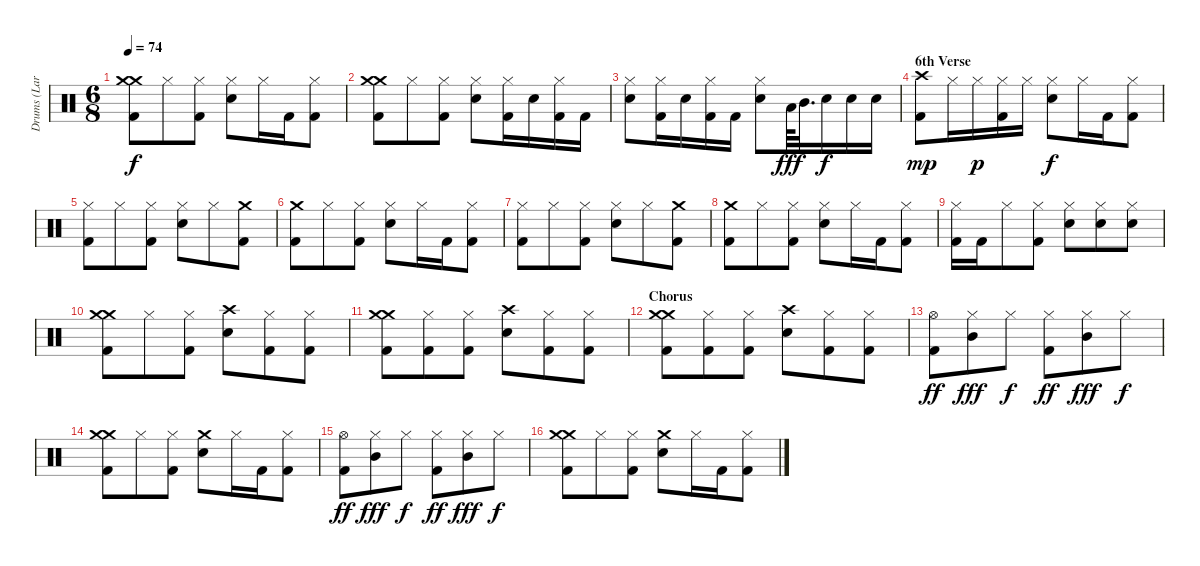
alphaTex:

\track ("Drums (Lars Ulrich)" "Drums (Lar") {instrument percussion}
\staff {score}
\articulation defaults
\ts (6 8)
\tempo 74
\clef neutral
\ks c
("Crash medium (hit)" "Crash medium (hit)" "Kick (hit) 2").8{dy f} "Hi-Hat (closed)".8 ("Hi-Hat (closed)" "Kick (hit) 2").8 ("Hi-Hat (closed)" "Snare (hit) 2").8 "Hi-Hat (closed)".16 "Kick (hit) 2".16 ("Hi-Hat (closed)" "Kick (hit) 2").8 |
("Crash medium (hit)" "Crash medium (hit)" "Kick (hit) 2").8 "Hi-Hat (closed)".8 ("Hi-Hat (closed)" "Kick (hit) 2").8 ("Hi-Hat (closed)" "Snare (hit) 2").8 ("Hi-Hat (closed)" "Kick (hit) 2").16 "Snare (hit) 2".16 ("Hi-Hat (closed)" "Kick (hit) 2").16 "Kick (hit) 2".16 |
("Hi-Hat (closed)" "Snare (hit) 2").8 ("Hi-Hat (closed)" "Kick (hit) 2").16 "Snare (hit) 2".16 ("Hi-Hat (closed)" "Kick (hit) 2").16 "Kick (hit) 2".16 ("Hi-Hat (closed)" "Snare (hit) 2").8 "Low Tom (hit)".64{dy fff} "Mid Tom (hit)".32{d} "Snare (hit) 2".16{dy f} "Snare (hit) 2".16 "Snare (hit) 2".16 |
\section ("" "6th Verse")
("Crash high (hit)" "Kick (hit) 2").8{dy mp} "Hi-Hat (closed)".16 "Hi-Hat (closed)".16{dy p} ("Hi-Hat (closed)" "Kick (hit) 2").16 "Hi-Hat (closed)".16 ("Hi-Hat (closed)" "Snare (hit) 2").8{dy f} "Hi-Hat (closed)".16 "Kick (hit) 2".16 ("Hi-Hat (closed)" "Kick (hit) 2").8 |
("Hi-Hat (closed)" "Kick (hit) 2").8 "Hi-Hat (closed)".8 ("Hi-Hat (closed)" "Kick (hit) 2").8 ("Hi-Hat (closed)" "Snare (hit) 2").8 "Hi-Hat (closed)".8 ("Crash medium (hit)" "Kick (hit) 2").8 |
("Crash medium (hit)" "Kick (hit) 2").8 "Hi-Hat (closed)".8 ("Hi-Hat (closed)" "Kick (hit) 2").8 ("Hi-Hat (closed)" "Snare (hit) 2").8 "Hi-Hat (closed)".16 "Kick (hit) 2".16 ("Hi-Hat (closed)" "Kick (hit) 2").8 |
("Hi-Hat (closed)" "Kick (hit) 2").8 "Hi-Hat (closed)".8 ("Hi-Hat (closed)" "Kick (hit) 2").8 ("Hi-Hat (closed)" "Snare (hit) 2").8 "Hi-Hat (closed)".8 ("Crash medium (hit)" "Kick (hit) 2").8 |
("Crash medium (hit)" "Kick (hit) 2").8 "Hi-Hat (closed)".8 ("Hi-Hat (closed)" "Kick (hit) 2").8 ("Hi-Hat (closed)" "Snare (hit) 2").8 "Hi-Hat (closed)".16 "Kick (hit) 2".16 ("Hi-Hat (closed)" "Kick (hit) 2").8 |
("Hi-Hat (closed)" "Kick (hit) 2").16 "Kick (hit) 2".16 "Hi-Hat (closed)".8 ("Hi-Hat (closed)" "Kick (hit) 2").8 ("Hi-Hat (closed)" "Snare (hit) 2").8 ("Hi-Hat (closed)" "Snare (hit) 2").8 ("Hi-Hat (closed)" "Snare (hit) 2").8 |
("Crash medium (hit)" "Crash medium (hit)" "Kick (hit) 2").8 "Hi-Hat (closed)".8 ("Hi-Hat (closed)" "Kick (hit) 2").8 ("Crash high (hit)" "Snare (hit) 2").8 ("Hi-Hat (closed)" "Kick (hit) 2").8 ("Hi-Hat (closed)" "Kick (hit) 2").8 |
("Crash medium (hit)" "Crash medium (hit)" "Kick (hit) 2").8 ("Hi-Hat (closed)" "Kick (hit) 2").8 ("Hi-Hat (closed)" "Kick (hit) 2").8 ("Crash high (hit)" "Snare (hit) 2").8 ("Hi-Hat (closed)" "Kick (hit) 2").8 ("Hi-Hat (closed)" "Kick (hit) 2").8 |
\section ("" "Chorus")
("Crash medium (hit)" "Crash medium (hit)" "Kick (hit) 2").8 ("Hi-Hat (closed)" "Kick (hit) 2").8 ("Hi-Hat (closed)" "Kick (hit) 2").8 ("Crash high (hit)" "Snare (hit) 2").8 ("Hi-Hat (closed)" "Kick (hit) 2").8 ("Hi-Hat (closed)" "Kick (hit) 2").8 |
("Hi-Hat (open)" "Kick (hit) 2").8{dy ff} ("Hi-Hat (closed)" "Mid Tom (hit)").8{dy fff} "Hi-Hat (closed)".8{dy f} ("Hi-Hat (closed)" "Kick (hit) 2").8{dy ff} ("Hi-Hat (closed)" "Mid Tom (hit)").8{dy fff} "Hi-Hat (closed)".8{dy f} |
("Crash medium (hit)" "Crash medium (hit)" "Kick (hit) 2").8 "Hi-Hat (closed)".8 ("Hi-Hat (closed)" "Kick (hit) 2").8 ("Crash medium (hit)" "Snare (hit) 2").8 "Hi-Hat (closed)".16 "Kick (hit) 2".16 ("Hi-Hat (closed)" "Kick (hit) 2").8 |
("Hi-Hat (open)" "Kick (hit) 2").8{dy ff} ("Hi-Hat (closed)" "Mid Tom (hit)").8{dy fff} "Hi-Hat (closed)".8{dy f} ("Hi-Hat (closed)" "Kick (hit) 2").8{dy ff} ("Hi-Hat (closed)" "Mid Tom (hit)").8{dy fff} "Hi-Hat (closed)".8{dy f} |
("Crash medium (hit)" "Crash medium (hit)" "Kick (hit) 2").8 "Hi-Hat (closed)".8 ("Hi-Hat (closed)" "Kick (hit) 2").8 ("Crash medium (hit)" "Snare (hit) 2").8 "Hi-Hat (closed)".16 "Kick (hit) 2".16 ("Hi-Hat (closed)" "Kick (hit) 2").8
